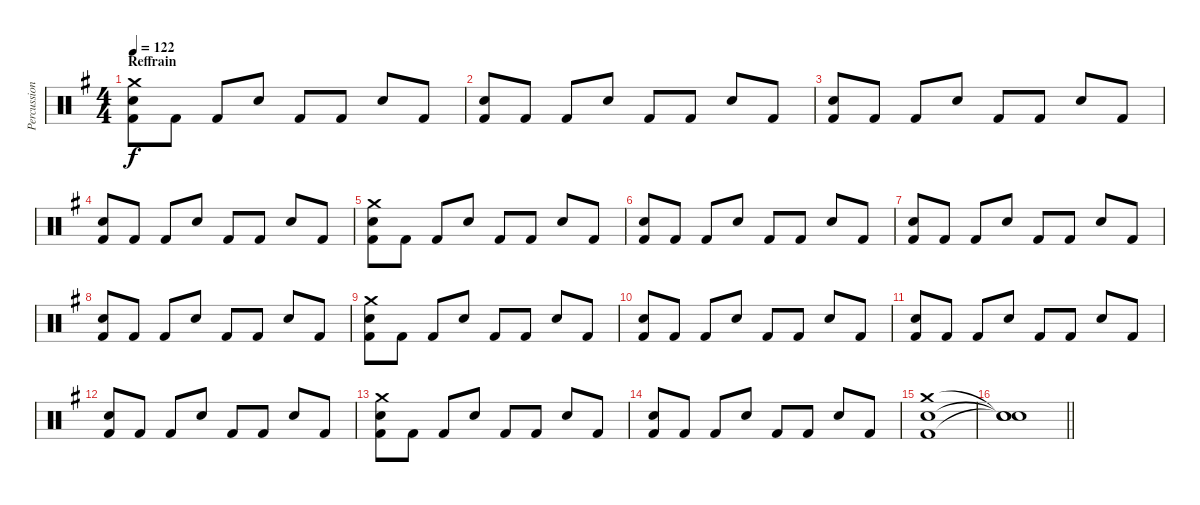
\track ("Percussion" "Percussion") {instrument percussion}
\staff {score}
\articulation defaults
\ts (4 4)
\section ("" "Reffrain")
\tempo 122
\clef neutral
\ks g
("Crash medium (hit)" "Snare (hit) 2" "Kick (hit) 2").8{dy f} "Kick (hit) 2".8 "Kick (hit) 2".8 "Snare (hit) 2".8 "Kick (hit) 2".8 "Kick (hit) 2".8 "Snare (hit) 2".8 "Kick (hit) 2".8 |
("Snare (hit) 2" "Kick (hit) 2").8 "Kick (hit) 2".8 "Kick (hit) 2".8 "Snare (hit) 2".8 "Kick (hit) 2".8 "Kick (hit) 2".8 "Snare (hit) 2".8 "Kick (hit) 2".8 |
("Snare (hit) 2" "Kick (hit) 2").8 "Kick (hit) 2".8 "Kick (hit) 2".8 "Snare (hit) 2".8 "Kick (hit) 2".8 "Kick (hit) 2".8 "Snare (hit) 2".8 "Kick (hit) 2".8 |
("Snare (hit) 2" "Kick (hit) 2").8 "Kick (hit) 2".8 "Kick (hit) 2".8 "Snare (hit) 2".8 "Kick (hit) 2".8 "Kick (hit) 2".8 "Snare (hit) 2".8 "Kick (hit) 2".8 |
("Crash medium (hit)" "Snare (hit) 2" "Kick (hit) 2").8 "Kick (hit) 2".8 "Kick (hit) 2".8 "Snare (hit) 2".8 "Kick (hit) 2".8 "Kick (hit) 2".8 "Snare (hit) 2".8 "Kick (hit) 2".8 |
("Snare (hit) 2" "Kick (hit) 2").8 "Kick (hit) 2".8 "Kick (hit) 2".8 "Snare (hit) 2".8 "Kick (hit) 2".8 "Kick (hit) 2".8 "Snare (hit) 2".8 "Kick (hit) 2".8 |
("Snare (hit) 2" "Kick (hit) 2").8 "Kick (hit) 2".8 "Kick (hit) 2".8 "Snare (hit) 2".8 "Kick (hit) 2".8 "Kick (hit) 2".8 "Snare (hit) 2".8 "Kick (hit) 2".8 |
("Snare (hit) 2" "Kick (hit) 2").8 "Kick (hit) 2".8 "Kick (hit) 2".8 "Snare (hit) 2".8 "Kick (hit) 2".8 "Kick (hit) 2".8 "Snare (hit) 2".8 "Kick (hit) 2".8 |
("Crash medium (hit)" "Snare (hit) 2" "Kick (hit) 2").8 "Kick (hit) 2".8 "Kick (hit) 2".8 "Snare (hit) 2".8 "Kick (hit) 2".8 "Kick (hit) 2".8 "Snare (hit) 2".8 "Kick (hit) 2".8 |
("Snare (hit) 2" "Kick (hit) 2").8 "Kick (hit) 2".8 "Kick (hit) 2".8 "Snare (hit) 2".8 "Kick (hit) 2".8 "Kick (hit) 2".8 "Snare (hit) 2".8 "Kick (hit) 2".8 |
("Snare (hit) 2" "Kick (hit) 2").8 "Kick (hit) 2".8 "Kick (hit) 2".8 "Snare (hit) 2".8 "Kick (hit) 2".8 "Kick (hit) 2".8 "Snare (hit) 2".8 "Kick (hit) 2".8 |
("Snare (hit) 2" "Kick (hit) 2").8 "Kick (hit) 2".8 "Kick (hit) 2".8 "Snare (hit) 2".8 "Kick (hit) 2".8 "Kick (hit) 2".8 "Snare (hit) 2".8 "Kick (hit) 2".8 |
("Crash medium (hit)" "Snare (hit) 2" "Kick (hit) 2").8 "Kick (hit) 2".8 "Kick (hit) 2".8 "Snare (hit) 2".8 "Kick (hit) 2".8 "Kick (hit) 2".8 "Snare (hit) 2".8 "Kick (hit) 2".8 |
("Snare (hit) 2" "Kick (hit) 2").8 "Kick (hit) 2".8 "Kick (hit) 2".8 "Snare (hit) 2".8 "Kick (hit) 2".8 "Kick (hit) 2".8 "Snare (hit) 2".8 "Kick (hit) 2".8 |
("Crash medium (hit)" "Snare (hit) 2" "Kick (hit) 2").1 |
\barLineRight lightlight
("Snare (hit)"{t} "Snare (hit)"{t} "Snare (hit)"{t}).1
